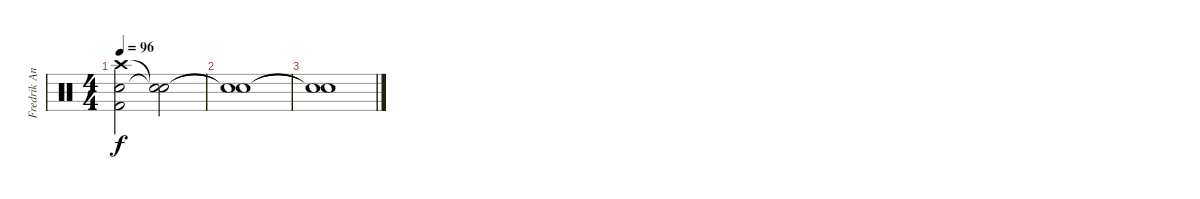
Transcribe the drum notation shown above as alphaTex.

\track ("Fredrik Andersson" "Fredrik An") {instrument percussion}
\staff {score}
\articulation defaults
\ts (4 4)
\tempo 96
\clef neutral
\ks c
("Crash high (hit)" "Snare (hit) 2" "Kick (hit) 2").2{dy f} ("Snare (hit)"{t} "Snare (hit)"{t}).2 |
("Snare (hit)"{t} "Snare (hit)"{t}).1 |
("Snare (hit)"{t} "Snare (hit)"{t}).1
